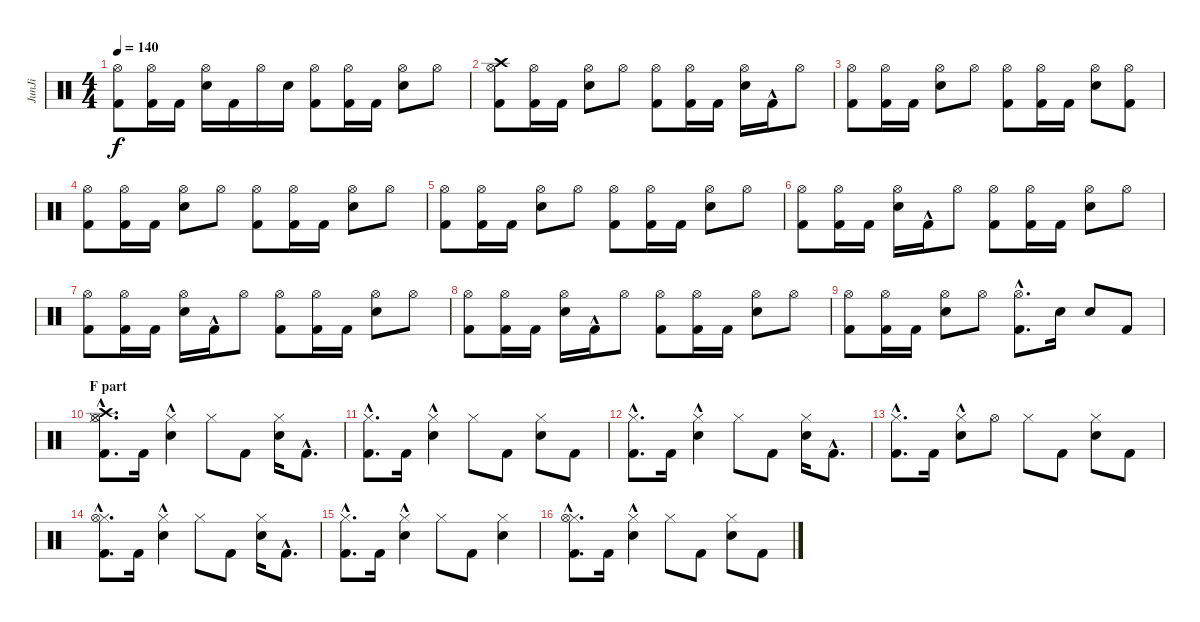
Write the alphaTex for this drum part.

\track ("JunJi" "JunJi") {instrument percussion}
\staff {score}
\articulation defaults
\ts (4 4)
\tempo 140
\clef neutral
\ks c
("Kick (hit) 2" "Hi-Hat (open)").8{dy f} ("Hi-Hat (open)" "Kick (hit) 2").16 "Kick (hit) 2".16 ("Electric Snare (hit)" "Hi-Hat (open)").16 "Kick (hit) 2".16 "Hi-Hat (open)".16 "Electric Snare (hit)".16 ("Kick (hit) 2" "Hi-Hat (open)").8 ("Kick (hit) 2" "Hi-Hat (open)").16 "Kick (hit) 2".16 ("Electric Snare (hit)" "Hi-Hat (open)").8 "Hi-Hat (open)".8 |
("Crash high (hit)" "Hi-Hat (open)" "Kick (hit) 2").8 ("Hi-Hat (open)" "Kick (hit) 2").16 "Kick (hit) 2".16 ("Electric Snare (hit)" "Hi-Hat (open)").8 "Hi-Hat (open)".8 ("Hi-Hat (open)" "Kick (hit) 2").8 ("Kick (hit) 2" "Hi-Hat (open)").16 "Kick (hit) 2".16 ("Hi-Hat (open)" "Electric Snare (hit)").16 "Kick (hit) 2"{hac}.16 "Hi-Hat (open)".8 |
("Hi-Hat (open)" "Kick (hit) 2").8 ("Kick (hit) 2" "Hi-Hat (open)").16 "Kick (hit) 2".16 ("Hi-Hat (open)" "Electric Snare (hit)").8 "Hi-Hat (open)".8 ("Hi-Hat (open)" "Kick (hit) 2").8 ("Hi-Hat (open)" "Kick (hit) 2").16 "Kick (hit) 2".16 ("Hi-Hat (open)" "Electric Snare (hit)").8 ("Kick (hit) 2" "Hi-Hat (open)").8 |
("Hi-Hat (open)" "Kick (hit) 2").8 ("Kick (hit) 2" "Hi-Hat (open)").16 "Kick (hit) 2".16 ("Electric Snare (hit)" "Hi-Hat (open)").8 "Hi-Hat (open)".8 ("Hi-Hat (open)" "Kick (hit) 2").8 ("Hi-Hat (open)" "Kick (hit) 2").16 "Kick (hit) 2".16 ("Electric Snare (hit)" "Hi-Hat (open)").8 "Hi-Hat (open)".8 |
("Kick (hit) 2" "Hi-Hat (open)").8 ("Hi-Hat (open)" "Kick (hit) 2").16 "Kick (hit) 2".16 ("Electric Snare (hit)" "Hi-Hat (open)").8 "Hi-Hat (open)".8 ("Kick (hit) 2" "Hi-Hat (open)").8 ("Kick (hit) 2" "Hi-Hat (open)").16 "Kick (hit) 2".16 ("Electric Snare (hit)" "Hi-Hat (open)").8 "Hi-Hat (open)".8 |
("Hi-Hat (open)" "Kick (hit) 2").8 ("Hi-Hat (open)" "Kick (hit) 2").16 "Kick (hit) 2".16 ("Electric Snare (hit)" "Hi-Hat (open)").16 "Kick (hit) 2"{hac}.16 "Hi-Hat (open)".8 ("Hi-Hat (open)" "Kick (hit) 2").8 ("Kick (hit) 2" "Hi-Hat (open)").16 "Kick (hit) 2".16 ("Hi-Hat (open)" "Electric Snare (hit)").8 "Hi-Hat (open)".8 |
("Hi-Hat (open)" "Kick (hit) 2").8 ("Kick (hit) 2" "Hi-Hat (open)").16 "Kick (hit) 2".16 ("Hi-Hat (open)" "Electric Snare (hit)").16 "Kick (hit) 2"{hac}.16 "Hi-Hat (open)".8 ("Hi-Hat (open)" "Kick (hit) 2").8 ("Hi-Hat (open)" "Kick (hit) 2").16 "Kick (hit) 2".16 ("Hi-Hat (open)" "Electric Snare (hit)").8 "Hi-Hat (open)".8 |
("Hi-Hat (open)" "Kick (hit) 2").8 ("Kick (hit) 2" "Hi-Hat (open)").16 "Kick (hit) 2".16 ("Hi-Hat (open)" "Electric Snare (hit)").16 "Kick (hit) 2"{hac}.16 "Hi-Hat (open)".8 ("Hi-Hat (open)" "Kick (hit) 2").8 ("Hi-Hat (open)" "Kick (hit) 2").16 "Kick (hit) 2".16 ("Hi-Hat (open)" "Electric Snare (hit)").8 "Hi-Hat (open)".8 |
("Kick (hit) 2" "Hi-Hat (open)").8 ("Hi-Hat (open)" "Kick (hit) 2").16 "Kick (hit) 2".16 ("Electric Snare (hit)" "Hi-Hat (open)").8 "Hi-Hat (open)".8 ("Kick (hit) 2"{hac} "Hi-Hat (open)").8{d} "Electric Snare (hit)".16 "Electric Snare (hit)".8 "Kick (hit) 2".8 |
\section ("" "F part")
("Hi-Hat (closed)" "Hi-Hat (open)" "Crash high (hit)" "Kick (hit) 2"{hac}).8{d} "Kick (hit) 2".16 ("Hi-Hat (closed)" "Electric Snare (hit)"{hac}).4 "Hi-Hat (closed)".8 "Kick (hit) 2".8 ("Hi-Hat (closed)" "Electric Snare (hit)").16 "Kick (hit) 2"{hac}.8{d} |
("Hi-Hat (closed)" "Kick (hit) 2"{hac}).8{d} "Kick (hit) 2".16 ("Hi-Hat (closed)" "Electric Snare (hit)"{hac}).4 "Hi-Hat (closed)".8 "Kick (hit) 2".8 ("Hi-Hat (closed)" "Electric Snare (hit)").8 "Kick (hit) 2".8 |
("Hi-Hat (closed)" "Kick (hit) 2"{hac}).8{d} "Kick (hit) 2".16 ("Hi-Hat (closed)" "Electric Snare (hit)"{hac}).4 "Hi-Hat (closed)".8 "Kick (hit) 2".8 ("Hi-Hat (closed)" "Electric Snare (hit)").16 "Kick (hit) 2"{hac}.8{d} |
("Hi-Hat (closed)" "Kick (hit) 2"{hac}).8{d} "Kick (hit) 2".16 ("Hi-Hat (closed)" "Electric Snare (hit)"{hac}).8 "Hi-Hat (open)".8 "Hi-Hat (closed)".8 "Kick (hit) 2".8 ("Hi-Hat (closed)" "Electric Snare (hit)").8 "Kick (hit) 2".8 |
("Hi-Hat (closed)" "Hi-Hat (open)" "Kick (hit) 2"{hac}).8{d} "Kick (hit) 2".16 ("Hi-Hat (closed)" "Electric Snare (hit)"{hac}).4 "Hi-Hat (closed)".8 "Kick (hit) 2".8 ("Hi-Hat (closed)" "Electric Snare (hit)").16 "Kick (hit) 2"{hac}.8{d} |
("Hi-Hat (closed)" "Kick (hit) 2"{hac}).8{d} "Kick (hit) 2".16 ("Hi-Hat (closed)" "Electric Snare (hit)"{hac}).4 "Hi-Hat (closed)".8 "Kick (hit) 2".8 ("Hi-Hat (closed)" "Electric Snare (hit)").4 |
("Hi-Hat (closed)" "Hi-Hat (open)" "Kick (hit) 2"{hac}).8{d} "Kick (hit) 2".16 ("Hi-Hat (closed)" "Electric Snare (hit)"{hac}).4 "Hi-Hat (closed)".8 "Kick (hit) 2".8 ("Hi-Hat (closed)" "Electric Snare (hit)").8 "Kick (hit) 2".8
